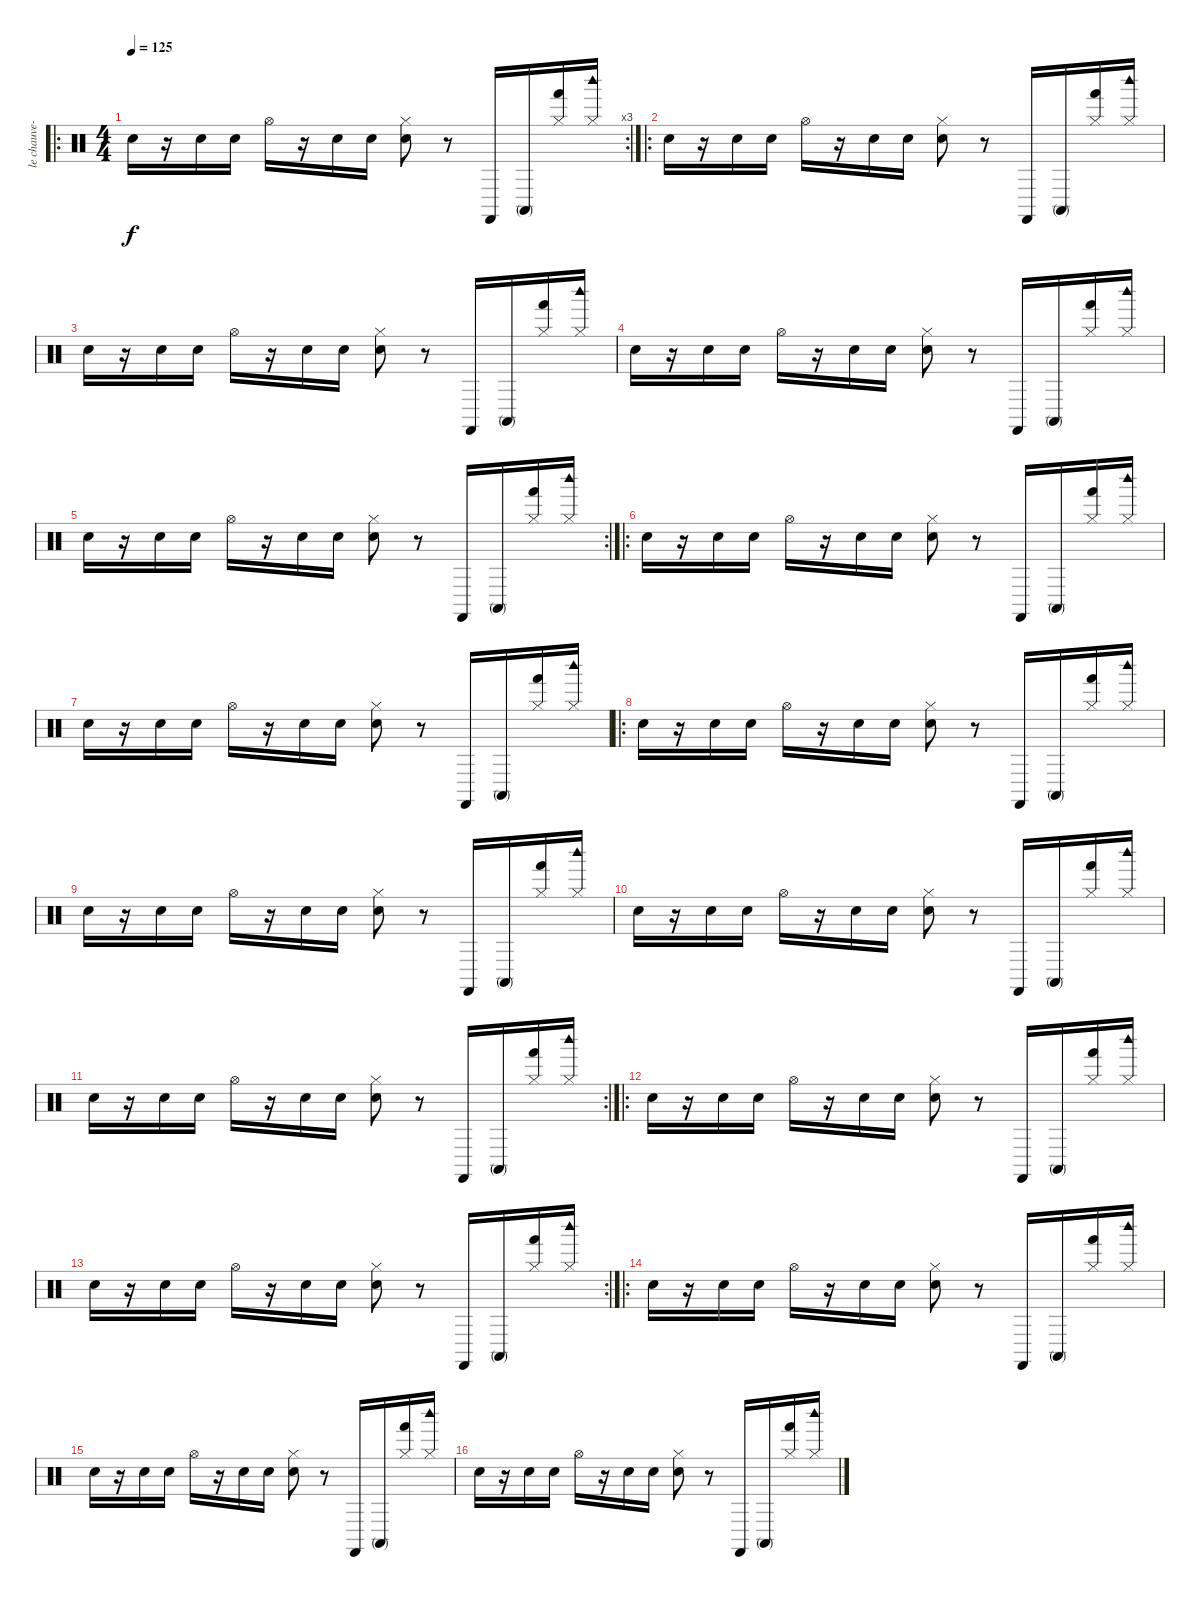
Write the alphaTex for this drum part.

\track ("le chauve-(batterie)" "le chauve-") {instrument percussion}
\staff {score}
\articulation defaults
\ro
\rc 3
\ts (4 4)
\tempo 125
\clef neutral
\ks c "Electric Snare (hit)".16{dy f}
r.16 "Electric Snare (hit)".16 "Electric Snare (hit)".16 "Hi-Hat (open)".16 r.16 "Electric Snare (hit)".16 "Electric Snare (hit)".16 ("Hi-Hat (closed)" "Electric Snare (hit)").8 r.8 "Castanets (hit)".16 "Conga high (mute)".16 ("Hand (hit)" "Hi-Hat (closed)").16 ("Hi-Hat (closed)" "Woodblock high (hit)").16 |
\ro "Electric Snare (hit)".16
r.16 "Electric Snare (hit)".16 "Electric Snare (hit)".16 "Hi-Hat (open)".16 r.16 "Electric Snare (hit)".16 "Electric Snare (hit)".16 ("Hi-Hat (closed)" "Electric Snare (hit)").8 r.8 "Castanets (hit)".16 "Conga high (mute)".16 ("Hand (hit)" "Hi-Hat (closed)").16 ("Hi-Hat (closed)" "Woodblock high (hit)").16 |
"Electric Snare (hit)".16 r.16 "Electric Snare (hit)".16 "Electric Snare (hit)".16 "Hi-Hat (open)".16 r.16 "Electric Snare (hit)".16 "Electric Snare (hit)".16 ("Hi-Hat (closed)" "Electric Snare (hit)").8 r.8 "Castanets (hit)".16 "Conga high (mute)".16 ("Hand (hit)" "Hi-Hat (closed)").16 ("Hi-Hat (closed)" "Woodblock high (hit)").16 |
"Electric Snare (hit)".16 r.16 "Electric Snare (hit)".16 "Electric Snare (hit)".16 "Hi-Hat (open)".16 r.16 "Electric Snare (hit)".16 "Electric Snare (hit)".16 ("Hi-Hat (closed)" "Electric Snare (hit)").8 r.8 "Castanets (hit)".16 "Conga high (mute)".16 ("Hand (hit)" "Hi-Hat (closed)").16 ("Hi-Hat (closed)" "Woodblock high (hit)").16 |
\rc 2 "Electric Snare (hit)".16
r.16 "Electric Snare (hit)".16 "Electric Snare (hit)".16 "Hi-Hat (open)".16 r.16 "Electric Snare (hit)".16 "Electric Snare (hit)".16 ("Hi-Hat (closed)" "Electric Snare (hit)").8 r.8 "Castanets (hit)".16 "Conga high (mute)".16 ("Hand (hit)" "Hi-Hat (closed)").16 ("Hi-Hat (closed)" "Woodblock high (hit)").16 |
\ro "Electric Snare (hit)".16
r.16 "Electric Snare (hit)".16 "Electric Snare (hit)".16 "Hi-Hat (open)".16 r.16 "Electric Snare (hit)".16 "Electric Snare (hit)".16 ("Hi-Hat (closed)" "Electric Snare (hit)").8 r.8 "Castanets (hit)".16 "Conga high (mute)".16 ("Hand (hit)" "Hi-Hat (closed)").16 ("Hi-Hat (closed)" "Woodblock high (hit)").16 |
"Electric Snare (hit)".16 r.16 "Electric Snare (hit)".16 "Electric Snare (hit)".16 "Hi-Hat (open)".16 r.16 "Electric Snare (hit)".16 "Electric Snare (hit)".16 ("Hi-Hat (closed)" "Electric Snare (hit)").8 r.8 "Castanets (hit)".16 "Conga high (mute)".16 ("Hand (hit)" "Hi-Hat (closed)").16 ("Hi-Hat (closed)" "Woodblock high (hit)").16 |
\ro "Electric Snare (hit)".16
r.16 "Electric Snare (hit)".16 "Electric Snare (hit)".16 "Hi-Hat (open)".16 r.16 "Electric Snare (hit)".16 "Electric Snare (hit)".16 ("Hi-Hat (closed)" "Electric Snare (hit)").8 r.8 "Castanets (hit)".16 "Conga high (mute)".16 ("Hand (hit)" "Hi-Hat (closed)").16 ("Hi-Hat (closed)" "Woodblock high (hit)").16 |
"Electric Snare (hit)".16 r.16 "Electric Snare (hit)".16 "Electric Snare (hit)".16 "Hi-Hat (open)".16 r.16 "Electric Snare (hit)".16 "Electric Snare (hit)".16 ("Hi-Hat (closed)" "Electric Snare (hit)").8 r.8 "Castanets (hit)".16 "Conga high (mute)".16 ("Hand (hit)" "Hi-Hat (closed)").16 ("Hi-Hat (closed)" "Woodblock high (hit)").16 |
"Electric Snare (hit)".16 r.16 "Electric Snare (hit)".16 "Electric Snare (hit)".16 "Hi-Hat (open)".16 r.16 "Electric Snare (hit)".16 "Electric Snare (hit)".16 ("Hi-Hat (closed)" "Electric Snare (hit)").8 r.8 "Castanets (hit)".16 "Conga high (mute)".16 ("Hand (hit)" "Hi-Hat (closed)").16 ("Hi-Hat (closed)" "Woodblock high (hit)").16 |
\rc 2 "Electric Snare (hit)".16
r.16 "Electric Snare (hit)".16 "Electric Snare (hit)".16 "Hi-Hat (open)".16 r.16 "Electric Snare (hit)".16 "Electric Snare (hit)".16 ("Hi-Hat (closed)" "Electric Snare (hit)").8 r.8 "Castanets (hit)".16 "Conga high (mute)".16 ("Hand (hit)" "Hi-Hat (closed)").16 ("Hi-Hat (closed)" "Woodblock high (hit)").16 |
\ro "Electric Snare (hit)".16
r.16 "Electric Snare (hit)".16 "Electric Snare (hit)".16 "Hi-Hat (open)".16 r.16 "Electric Snare (hit)".16 "Electric Snare (hit)".16 ("Hi-Hat (closed)" "Electric Snare (hit)").8 r.8 "Castanets (hit)".16 "Conga high (mute)".16 ("Hand (hit)" "Hi-Hat (closed)").16 ("Hi-Hat (closed)" "Woodblock high (hit)").16 |
\rc 2 "Electric Snare (hit)".16
r.16 "Electric Snare (hit)".16 "Electric Snare (hit)".16 "Hi-Hat (open)".16 r.16 "Electric Snare (hit)".16 "Electric Snare (hit)".16 ("Hi-Hat (closed)" "Electric Snare (hit)").8 r.8 "Castanets (hit)".16 "Conga high (mute)".16 ("Hand (hit)" "Hi-Hat (closed)").16 ("Hi-Hat (closed)" "Woodblock high (hit)").16 |
\ro "Electric Snare (hit)".16
r.16 "Electric Snare (hit)".16 "Electric Snare (hit)".16 "Hi-Hat (open)".16 r.16 "Electric Snare (hit)".16 "Electric Snare (hit)".16 ("Hi-Hat (closed)" "Electric Snare (hit)").8 r.8 "Castanets (hit)".16 "Conga high (mute)".16 ("Hand (hit)" "Hi-Hat (closed)").16 ("Hi-Hat (closed)" "Woodblock high (hit)").16 |
"Electric Snare (hit)".16 r.16 "Electric Snare (hit)".16 "Electric Snare (hit)".16 "Hi-Hat (open)".16 r.16 "Electric Snare (hit)".16 "Electric Snare (hit)".16 ("Hi-Hat (closed)" "Electric Snare (hit)").8 r.8 "Castanets (hit)".16 "Conga high (mute)".16 ("Hand (hit)" "Hi-Hat (closed)").16 ("Hi-Hat (closed)" "Woodblock high (hit)").16 |
"Electric Snare (hit)".16 r.16 "Electric Snare (hit)".16 "Electric Snare (hit)".16 "Hi-Hat (open)".16 r.16 "Electric Snare (hit)".16 "Electric Snare (hit)".16 ("Hi-Hat (closed)" "Electric Snare (hit)").8 r.8 "Castanets (hit)".16 "Conga high (mute)".16 ("Hand (hit)" "Hi-Hat (closed)").16 ("Hi-Hat (closed)" "Woodblock high (hit)").16
